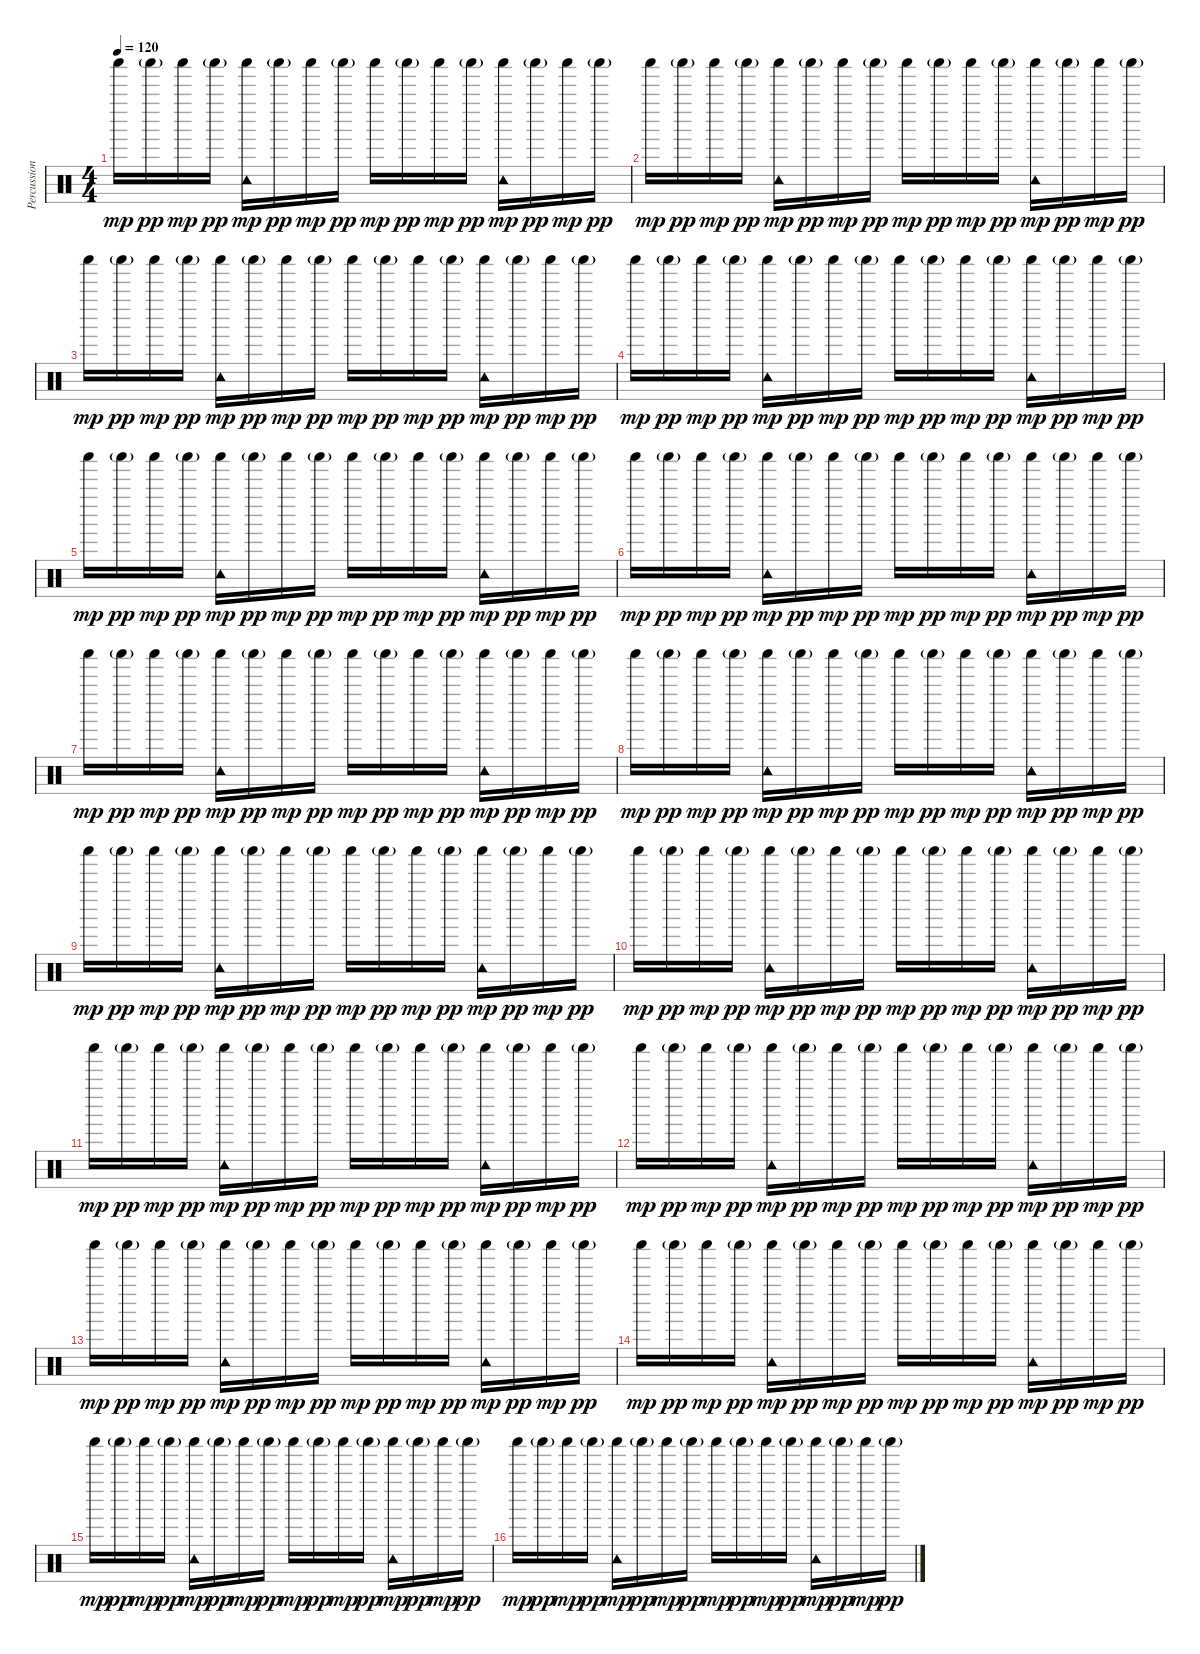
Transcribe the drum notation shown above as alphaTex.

\track ("Percussion" "Percussion") {instrument percussion}
\staff {score}
\articulation defaults
\ts (4 4)
\tempo 120
\clef neutral
\ks c "Shaker (hit)".16{dy mp} "Shaker (hit)"{g}.16{dy pp} "Shaker (hit)".16{dy mp} "Shaker (hit)"{g}.16{dy pp}
("Shaker (hit)" "Tambourine (hit)").16{dy mp} "Shaker (hit)"{g}.16{dy pp} "Shaker (hit)".16{dy mp} "Shaker (hit)"{g}.16{dy pp} "Shaker (hit)".16{dy mp} "Shaker (hit)"{g}.16{dy pp} "Shaker (hit)".16{dy mp} "Shaker (hit)"{g}.16{dy pp} ("Shaker (hit)" "Tambourine (hit)").16{dy mp} "Shaker (hit)"{g}.16{dy pp} "Shaker (hit)".16{dy mp} "Shaker (hit)"{g}.16{dy pp} |
"Shaker (hit)".16{dy mp} "Shaker (hit)"{g}.16{dy pp} "Shaker (hit)".16{dy mp} "Shaker (hit)"{g}.16{dy pp} ("Shaker (hit)" "Tambourine (hit)").16{dy mp} "Shaker (hit)"{g}.16{dy pp} "Shaker (hit)".16{dy mp} "Shaker (hit)"{g}.16{dy pp} "Shaker (hit)".16{dy mp} "Shaker (hit)"{g}.16{dy pp} "Shaker (hit)".16{dy mp} "Shaker (hit)"{g}.16{dy pp} ("Shaker (hit)" "Tambourine (hit)").16{dy mp} "Shaker (hit)"{g}.16{dy pp} "Shaker (hit)".16{dy mp} "Shaker (hit)"{g}.16{dy pp} |
"Shaker (hit)".16{dy mp} "Shaker (hit)"{g}.16{dy pp} "Shaker (hit)".16{dy mp} "Shaker (hit)"{g}.16{dy pp} ("Shaker (hit)" "Tambourine (hit)").16{dy mp} "Shaker (hit)"{g}.16{dy pp} "Shaker (hit)".16{dy mp} "Shaker (hit)"{g}.16{dy pp} "Shaker (hit)".16{dy mp} "Shaker (hit)"{g}.16{dy pp} "Shaker (hit)".16{dy mp} "Shaker (hit)"{g}.16{dy pp} ("Shaker (hit)" "Tambourine (hit)").16{dy mp} "Shaker (hit)"{g}.16{dy pp} "Shaker (hit)".16{dy mp} "Shaker (hit)"{g}.16{dy pp} |
"Shaker (hit)".16{dy mp} "Shaker (hit)"{g}.16{dy pp} "Shaker (hit)".16{dy mp} "Shaker (hit)"{g}.16{dy pp} ("Shaker (hit)" "Tambourine (hit)").16{dy mp} "Shaker (hit)"{g}.16{dy pp} "Shaker (hit)".16{dy mp} "Shaker (hit)"{g}.16{dy pp} "Shaker (hit)".16{dy mp} "Shaker (hit)"{g}.16{dy pp} "Shaker (hit)".16{dy mp} "Shaker (hit)"{g}.16{dy pp} ("Shaker (hit)" "Tambourine (hit)").16{dy mp} "Shaker (hit)"{g}.16{dy pp} "Shaker (hit)".16{dy mp} "Shaker (hit)"{g}.16{dy pp} |
"Shaker (hit)".16{dy mp} "Shaker (hit)"{g}.16{dy pp} "Shaker (hit)".16{dy mp} "Shaker (hit)"{g}.16{dy pp} ("Shaker (hit)" "Tambourine (hit)").16{dy mp} "Shaker (hit)"{g}.16{dy pp} "Shaker (hit)".16{dy mp} "Shaker (hit)"{g}.16{dy pp} "Shaker (hit)".16{dy mp} "Shaker (hit)"{g}.16{dy pp} "Shaker (hit)".16{dy mp} "Shaker (hit)"{g}.16{dy pp} ("Shaker (hit)" "Tambourine (hit)").16{dy mp} "Shaker (hit)"{g}.16{dy pp} "Shaker (hit)".16{dy mp} "Shaker (hit)"{g}.16{dy pp} |
"Shaker (hit)".16{dy mp} "Shaker (hit)"{g}.16{dy pp} "Shaker (hit)".16{dy mp} "Shaker (hit)"{g}.16{dy pp} ("Shaker (hit)" "Tambourine (hit)").16{dy mp} "Shaker (hit)"{g}.16{dy pp} "Shaker (hit)".16{dy mp} "Shaker (hit)"{g}.16{dy pp} "Shaker (hit)".16{dy mp} "Shaker (hit)"{g}.16{dy pp} "Shaker (hit)".16{dy mp} "Shaker (hit)"{g}.16{dy pp} ("Shaker (hit)" "Tambourine (hit)").16{dy mp} "Shaker (hit)"{g}.16{dy pp} "Shaker (hit)".16{dy mp} "Shaker (hit)"{g}.16{dy pp} |
"Shaker (hit)".16{dy mp} "Shaker (hit)"{g}.16{dy pp} "Shaker (hit)".16{dy mp} "Shaker (hit)"{g}.16{dy pp} ("Shaker (hit)" "Tambourine (hit)").16{dy mp} "Shaker (hit)"{g}.16{dy pp} "Shaker (hit)".16{dy mp} "Shaker (hit)"{g}.16{dy pp} "Shaker (hit)".16{dy mp} "Shaker (hit)"{g}.16{dy pp} "Shaker (hit)".16{dy mp} "Shaker (hit)"{g}.16{dy pp} ("Shaker (hit)" "Tambourine (hit)").16{dy mp} "Shaker (hit)"{g}.16{dy pp} "Shaker (hit)".16{dy mp} "Shaker (hit)"{g}.16{dy pp} |
"Shaker (hit)".16{dy mp} "Shaker (hit)"{g}.16{dy pp} "Shaker (hit)".16{dy mp} "Shaker (hit)"{g}.16{dy pp} ("Shaker (hit)" "Tambourine (hit)").16{dy mp} "Shaker (hit)"{g}.16{dy pp} "Shaker (hit)".16{dy mp} "Shaker (hit)"{g}.16{dy pp} "Shaker (hit)".16{dy mp} "Shaker (hit)"{g}.16{dy pp} "Shaker (hit)".16{dy mp} "Shaker (hit)"{g}.16{dy pp} ("Shaker (hit)" "Tambourine (hit)").16{dy mp} "Shaker (hit)"{g}.16{dy pp} "Shaker (hit)".16{dy mp} "Shaker (hit)"{g}.16{dy pp} |
"Shaker (hit)".16{dy mp} "Shaker (hit)"{g}.16{dy pp} "Shaker (hit)".16{dy mp} "Shaker (hit)"{g}.16{dy pp} ("Shaker (hit)" "Tambourine (hit)").16{dy mp} "Shaker (hit)"{g}.16{dy pp} "Shaker (hit)".16{dy mp} "Shaker (hit)"{g}.16{dy pp} "Shaker (hit)".16{dy mp} "Shaker (hit)"{g}.16{dy pp} "Shaker (hit)".16{dy mp} "Shaker (hit)"{g}.16{dy pp} ("Shaker (hit)" "Tambourine (hit)").16{dy mp} "Shaker (hit)"{g}.16{dy pp} "Shaker (hit)".16{dy mp} "Shaker (hit)"{g}.16{dy pp} |
"Shaker (hit)".16{dy mp} "Shaker (hit)"{g}.16{dy pp} "Shaker (hit)".16{dy mp} "Shaker (hit)"{g}.16{dy pp} ("Shaker (hit)" "Tambourine (hit)").16{dy mp} "Shaker (hit)"{g}.16{dy pp} "Shaker (hit)".16{dy mp} "Shaker (hit)"{g}.16{dy pp} "Shaker (hit)".16{dy mp} "Shaker (hit)"{g}.16{dy pp} "Shaker (hit)".16{dy mp} "Shaker (hit)"{g}.16{dy pp} ("Shaker (hit)" "Tambourine (hit)").16{dy mp} "Shaker (hit)"{g}.16{dy pp} "Shaker (hit)".16{dy mp} "Shaker (hit)"{g}.16{dy pp} |
"Shaker (hit)".16{dy mp} "Shaker (hit)"{g}.16{dy pp} "Shaker (hit)".16{dy mp} "Shaker (hit)"{g}.16{dy pp} ("Shaker (hit)" "Tambourine (hit)").16{dy mp} "Shaker (hit)"{g}.16{dy pp} "Shaker (hit)".16{dy mp} "Shaker (hit)"{g}.16{dy pp} "Shaker (hit)".16{dy mp} "Shaker (hit)"{g}.16{dy pp} "Shaker (hit)".16{dy mp} "Shaker (hit)"{g}.16{dy pp} ("Shaker (hit)" "Tambourine (hit)").16{dy mp} "Shaker (hit)"{g}.16{dy pp} "Shaker (hit)".16{dy mp} "Shaker (hit)"{g}.16{dy pp} |
"Shaker (hit)".16{dy mp} "Shaker (hit)"{g}.16{dy pp} "Shaker (hit)".16{dy mp} "Shaker (hit)"{g}.16{dy pp} ("Shaker (hit)" "Tambourine (hit)").16{dy mp} "Shaker (hit)"{g}.16{dy pp} "Shaker (hit)".16{dy mp} "Shaker (hit)"{g}.16{dy pp} "Shaker (hit)".16{dy mp} "Shaker (hit)"{g}.16{dy pp} "Shaker (hit)".16{dy mp} "Shaker (hit)"{g}.16{dy pp} ("Shaker (hit)" "Tambourine (hit)").16{dy mp} "Shaker (hit)"{g}.16{dy pp} "Shaker (hit)".16{dy mp} "Shaker (hit)"{g}.16{dy pp} |
"Shaker (hit)".16{dy mp} "Shaker (hit)"{g}.16{dy pp} "Shaker (hit)".16{dy mp} "Shaker (hit)"{g}.16{dy pp} ("Shaker (hit)" "Tambourine (hit)").16{dy mp} "Shaker (hit)"{g}.16{dy pp} "Shaker (hit)".16{dy mp} "Shaker (hit)"{g}.16{dy pp} "Shaker (hit)".16{dy mp} "Shaker (hit)"{g}.16{dy pp} "Shaker (hit)".16{dy mp} "Shaker (hit)"{g}.16{dy pp} ("Shaker (hit)" "Tambourine (hit)").16{dy mp} "Shaker (hit)"{g}.16{dy pp} "Shaker (hit)".16{dy mp} "Shaker (hit)"{g}.16{dy pp} |
"Shaker (hit)".16{dy mp} "Shaker (hit)"{g}.16{dy pp} "Shaker (hit)".16{dy mp} "Shaker (hit)"{g}.16{dy pp} ("Shaker (hit)" "Tambourine (hit)").16{dy mp} "Shaker (hit)"{g}.16{dy pp} "Shaker (hit)".16{dy mp} "Shaker (hit)"{g}.16{dy pp} "Shaker (hit)".16{dy mp} "Shaker (hit)"{g}.16{dy pp} "Shaker (hit)".16{dy mp} "Shaker (hit)"{g}.16{dy pp} ("Shaker (hit)" "Tambourine (hit)").16{dy mp} "Shaker (hit)"{g}.16{dy pp} "Shaker (hit)".16{dy mp} "Shaker (hit)"{g}.16{dy pp} |
"Shaker (hit)".16{dy mp} "Shaker (hit)"{g}.16{dy pp} "Shaker (hit)".16{dy mp} "Shaker (hit)"{g}.16{dy pp} ("Shaker (hit)" "Tambourine (hit)").16{dy mp} "Shaker (hit)"{g}.16{dy pp} "Shaker (hit)".16{dy mp} "Shaker (hit)"{g}.16{dy pp} "Shaker (hit)".16{dy mp} "Shaker (hit)"{g}.16{dy pp} "Shaker (hit)".16{dy mp} "Shaker (hit)"{g}.16{dy pp} ("Shaker (hit)" "Tambourine (hit)").16{dy mp} "Shaker (hit)"{g}.16{dy pp} "Shaker (hit)".16{dy mp} "Shaker (hit)"{g}.16{dy pp} |
"Shaker (hit)".16{dy mp} "Shaker (hit)"{g}.16{dy pp} "Shaker (hit)".16{dy mp} "Shaker (hit)"{g}.16{dy pp} ("Shaker (hit)" "Tambourine (hit)").16{dy mp} "Shaker (hit)"{g}.16{dy pp} "Shaker (hit)".16{dy mp} "Shaker (hit)"{g}.16{dy pp} "Shaker (hit)".16{dy mp} "Shaker (hit)"{g}.16{dy pp} "Shaker (hit)".16{dy mp} "Shaker (hit)"{g}.16{dy pp} ("Shaker (hit)" "Tambourine (hit)").16{dy mp} "Shaker (hit)"{g}.16{dy pp} "Shaker (hit)".16{dy mp} "Shaker (hit)"{g}.16{dy pp}
